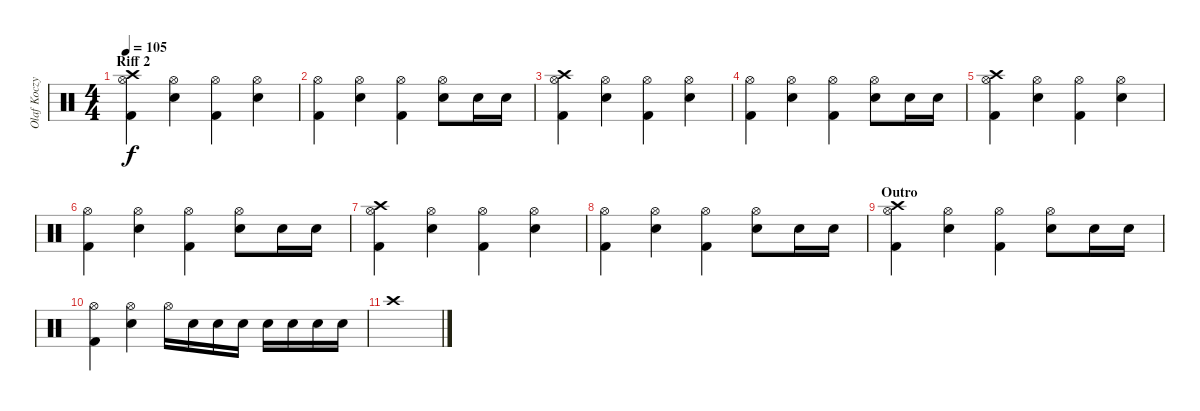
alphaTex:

\track ("Olaf Koczy (drums)" "Olaf Koczy") {instrument percussion}
\staff {score}
\articulation defaults
\ts (4 4)
\section ("" "Riff 2")
\tempo 105
\clef neutral
\ks c
("Crash high (hit)" "Hi-Hat (open)" "Kick (hit) 2").4{dy f} ("Hi-Hat (open)" "Snare (hit) 2").4 ("Hi-Hat (open)" "Kick (hit) 2").4 ("Hi-Hat (open)" "Snare (hit) 2").4 |
("Hi-Hat (open)" "Kick (hit) 2").4 ("Hi-Hat (open)" "Snare (hit) 2").4 ("Hi-Hat (open)" "Kick (hit) 2").4 ("Hi-Hat (open)" "Snare (hit) 2").8 "Snare (hit) 2".16 "Snare (hit) 2".16 |
("Crash high (hit)" "Hi-Hat (open)" "Kick (hit) 2").4 ("Hi-Hat (open)" "Snare (hit) 2").4 ("Hi-Hat (open)" "Kick (hit) 2").4 ("Hi-Hat (open)" "Snare (hit) 2").4 |
("Hi-Hat (open)" "Kick (hit) 2").4 ("Hi-Hat (open)" "Snare (hit) 2").4 ("Hi-Hat (open)" "Kick (hit) 2").4 ("Hi-Hat (open)" "Snare (hit) 2").8 "Snare (hit) 2".16 "Snare (hit) 2".16 |
("Crash high (hit)" "Hi-Hat (open)" "Kick (hit) 2").4 ("Hi-Hat (open)" "Snare (hit) 2").4 ("Hi-Hat (open)" "Kick (hit) 2").4 ("Hi-Hat (open)" "Snare (hit) 2").4 |
("Hi-Hat (open)" "Kick (hit) 2").4 ("Hi-Hat (open)" "Snare (hit) 2").4 ("Hi-Hat (open)" "Kick (hit) 2").4 ("Hi-Hat (open)" "Snare (hit) 2").8 "Snare (hit) 2".16 "Snare (hit) 2".16 |
("Crash high (hit)" "Hi-Hat (open)" "Kick (hit) 2").4 ("Hi-Hat (open)" "Snare (hit) 2").4 ("Hi-Hat (open)" "Kick (hit) 2").4 ("Hi-Hat (open)" "Snare (hit) 2").4 |
("Hi-Hat (open)" "Kick (hit) 2").4 ("Hi-Hat (open)" "Snare (hit) 2").4 ("Hi-Hat (open)" "Kick (hit) 2").4 ("Hi-Hat (open)" "Snare (hit) 2").8 "Snare (hit) 2".16 "Snare (hit) 2".16 |
\section ("" "Outro")
("Crash high (hit)" "Hi-Hat (open)" "Kick (hit) 2").4 ("Hi-Hat (open)" "Snare (hit) 2").4 ("Hi-Hat (open)" "Kick (hit) 2").4 ("Hi-Hat (open)" "Snare (hit) 2").8 "Snare (hit) 2".16 "Snare (hit) 2".16 |
("Hi-Hat (open)" "Kick (hit) 2").4 ("Hi-Hat (open)" "Snare (hit) 2").4 "Hi-Hat (open)".16 "Snare (hit) 2".16 "Snare (hit) 2".16 "Snare (hit) 2".16 "Snare (hit) 2".16 "Snare (hit) 2".16 "Snare (hit) 2".16 "Snare (hit) 2".16 |
"Crash high (hit)".1
